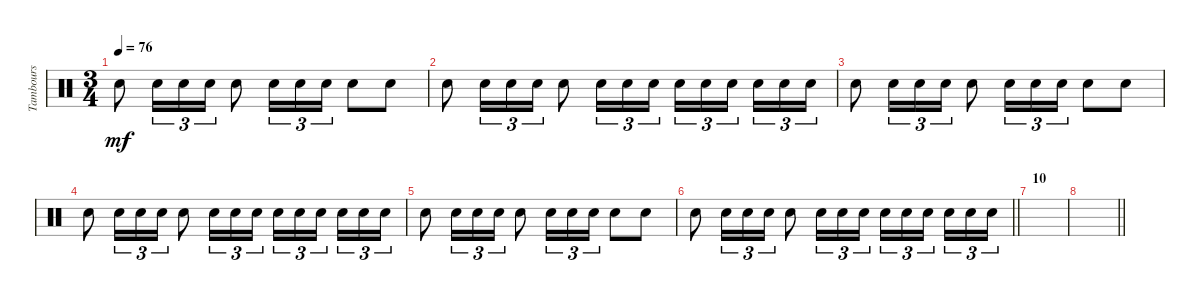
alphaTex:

\track ("Tambours" "Tambours") {instrument percussion}
\staff {score}
\articulation defaults
\ts (3 4)
\tempo 76
\clef neutral
\ks c "Snare (hit) 2".8{dy mf} "Snare (hit) 2".16{tu (3 2)} "Snare (hit) 2".16{tu (3 2)} "Snare (hit) 2".16{tu (3 2)} "Snare (hit) 2".8 "Snare (hit) 2".16{tu (3 2)} "Snare (hit) 2".16{tu (3 2)} "Snare (hit) 2".16{tu (3 2)} "Snare (hit) 2".8 "Snare (hit) 2".8
|
"Snare (hit) 2".8 "Snare (hit) 2".16{tu (3 2)} "Snare (hit) 2".16{tu (3 2)} "Snare (hit) 2".16{tu (3 2)} "Snare (hit) 2".8 "Snare (hit) 2".16{tu (3 2)} "Snare (hit) 2".16{tu (3 2)} "Snare (hit) 2".16{tu (3 2)} "Snare (hit) 2".16{tu (3 2)} "Snare (hit) 2".16{tu (3 2)} "Snare (hit) 2".16{tu (3 2) beam splitsecondary} "Snare (hit) 2".16{tu (3 2)} "Snare (hit) 2".16{tu (3 2)} "Snare (hit) 2".16{tu (3 2)} |
"Snare (hit) 2".8 "Snare (hit) 2".16{tu (3 2)} "Snare (hit) 2".16{tu (3 2)} "Snare (hit) 2".16{tu (3 2)} "Snare (hit) 2".8 "Snare (hit) 2".16{tu (3 2)} "Snare (hit) 2".16{tu (3 2)} "Snare (hit) 2".16{tu (3 2)} "Snare (hit) 2".8 "Snare (hit) 2".8 |
"Snare (hit) 2".8 "Snare (hit) 2".16{tu (3 2)} "Snare (hit) 2".16{tu (3 2)} "Snare (hit) 2".16{tu (3 2)} "Snare (hit) 2".8 "Snare (hit) 2".16{tu (3 2)} "Snare (hit) 2".16{tu (3 2)} "Snare (hit) 2".16{tu (3 2)} "Snare (hit) 2".16{tu (3 2)} "Snare (hit) 2".16{tu (3 2)} "Snare (hit) 2".16{tu (3 2) beam splitsecondary} "Snare (hit) 2".16{tu (3 2)} "Snare (hit) 2".16{tu (3 2)} "Snare (hit) 2".16{tu (3 2)} |
"Snare (hit) 2".8 "Snare (hit) 2".16{tu (3 2)} "Snare (hit) 2".16{tu (3 2)} "Snare (hit) 2".16{tu (3 2)} "Snare (hit) 2".8 "Snare (hit) 2".16{tu (3 2)} "Snare (hit) 2".16{tu (3 2)} "Snare (hit) 2".16{tu (3 2)} "Snare (hit) 2".8 "Snare (hit) 2".8 |
\barLineRight lightlight "Snare (hit) 2".8 "Snare (hit) 2".16{tu (3 2)} "Snare (hit) 2".16{tu (3 2)} "Snare (hit) 2".16{tu (3 2)} "Snare (hit) 2".8 "Snare (hit) 2".16{tu (3 2)} "Snare (hit) 2".16{tu (3 2)} "Snare (hit) 2".16{tu (3 2)} "Snare (hit) 2".16{tu (3 2)} "Snare (hit) 2".16{tu (3 2)} "Snare (hit) 2".16{tu (3 2) beam splitsecondary} "Snare (hit) 2".16{tu (3 2)} "Snare (hit) 2".16{tu (3 2)} "Snare (hit) 2".16{tu (3 2)}
|
\section ("" "10")
|
\barLineRight lightlight
